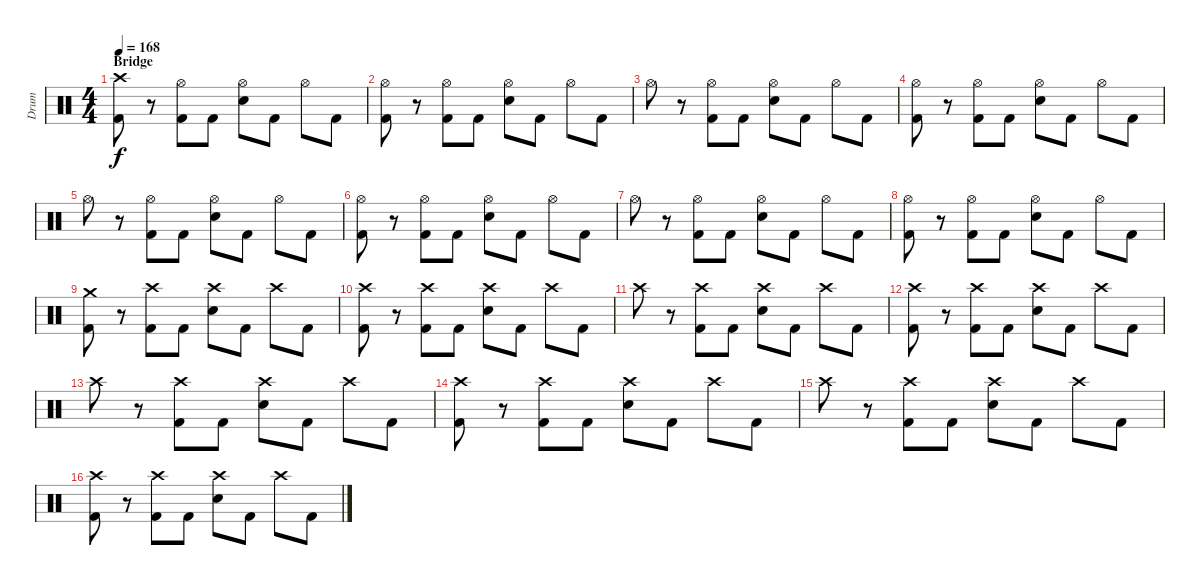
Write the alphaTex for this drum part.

\track ("Drum" "Drum") {instrument percussion}
\staff {score}
\articulation defaults
\ts (4 4)
\section ("" "Bridge")
\tempo 168
\clef neutral
\ks c
("Crash high (hit)" "Kick (hit) 2").8{dy f} r.8 ("Hi-Hat (open)" "Kick (hit) 2").8 "Kick (hit) 2".8 ("Hi-Hat (open)" "Electric Snare (hit)").8 "Kick (hit) 2".8 "Hi-Hat (open)".8 "Kick (hit) 2".8 |
("Hi-Hat (open)" "Kick (hit) 2").8 r.8 ("Hi-Hat (open)" "Kick (hit) 2").8 "Kick (hit) 2".8 ("Hi-Hat (open)" "Electric Snare (hit)").8 "Kick (hit) 2".8 "Hi-Hat (open)".8 "Kick (hit) 2".8 |
"Hi-Hat (open)".8 r.8 ("Hi-Hat (open)" "Kick (hit) 2").8 "Kick (hit) 2".8 ("Hi-Hat (open)" "Electric Snare (hit)").8 "Kick (hit) 2".8 "Hi-Hat (open)".8 "Kick (hit) 2".8 |
("Hi-Hat (open)" "Kick (hit) 2").8 r.8 ("Hi-Hat (open)" "Kick (hit) 2").8 "Kick (hit) 2".8 ("Hi-Hat (open)" "Electric Snare (hit)").8 "Kick (hit) 2".8 "Hi-Hat (open)".8 "Kick (hit) 2".8 |
"Hi-Hat (open)".8 r.8 ("Hi-Hat (open)" "Kick (hit) 2").8 "Kick (hit) 2".8 ("Hi-Hat (open)" "Electric Snare (hit)").8 "Kick (hit) 2".8 "Hi-Hat (open)".8 "Kick (hit) 2".8 |
("Hi-Hat (open)" "Kick (hit) 2").8 r.8 ("Hi-Hat (open)" "Kick (hit) 2").8 "Kick (hit) 2".8 ("Hi-Hat (open)" "Electric Snare (hit)").8 "Kick (hit) 2".8 "Hi-Hat (open)".8 "Kick (hit) 2".8 |
"Hi-Hat (open)".8 r.8 ("Hi-Hat (open)" "Kick (hit) 2").8 "Kick (hit) 2".8 ("Hi-Hat (open)" "Electric Snare (hit)").8 "Kick (hit) 2".8 "Hi-Hat (open)".8 "Kick (hit) 2".8 |
("Hi-Hat (open)" "Kick (hit) 2").8 r.8 ("Hi-Hat (open)" "Kick (hit) 2").8 "Kick (hit) 2".8 ("Hi-Hat (open)" "Electric Snare (hit)").8 "Kick (hit) 2".8 "Hi-Hat (open)".8 "Kick (hit) 2".8 |
("Crash medium (hit)" "Kick (hit) 2").8 r.8 ("Crash high (hit)" "Kick (hit) 2").8 "Kick (hit) 2".8 ("Crash high (hit)" "Electric Snare (hit)").8 "Kick (hit) 2".8 "Crash high (hit)".8 "Kick (hit) 2".8 |
("Crash high (hit)" "Kick (hit) 2").8 r.8 ("Crash high (hit)" "Kick (hit) 2").8 "Kick (hit) 2".8 ("Crash high (hit)" "Electric Snare (hit)").8 "Kick (hit) 2".8 "Crash high (hit)".8 "Kick (hit) 2".8 |
"Crash high (hit)".8 r.8 ("Crash high (hit)" "Kick (hit) 2").8 "Kick (hit) 2".8 ("Crash high (hit)" "Electric Snare (hit)").8 "Kick (hit) 2".8 "Crash high (hit)".8 "Kick (hit) 2".8 |
("Crash high (hit)" "Kick (hit) 2").8 r.8 ("Crash high (hit)" "Kick (hit) 2").8 "Kick (hit) 2".8 ("Crash high (hit)" "Electric Snare (hit)").8 "Kick (hit) 2".8 "Crash high (hit)".8 "Kick (hit) 2".8 |
"Crash high (hit)".8 r.8 ("Crash high (hit)" "Kick (hit) 2").8 "Kick (hit) 2".8 ("Crash high (hit)" "Electric Snare (hit)").8 "Kick (hit) 2".8 "Crash high (hit)".8 "Kick (hit) 2".8 |
("Crash high (hit)" "Kick (hit) 2").8 r.8 ("Crash high (hit)" "Kick (hit) 2").8 "Kick (hit) 2".8 ("Crash high (hit)" "Electric Snare (hit)").8 "Kick (hit) 2".8 "Crash high (hit)".8 "Kick (hit) 2".8 |
"Crash high (hit)".8 r.8 ("Crash high (hit)" "Kick (hit) 2").8 "Kick (hit) 2".8 ("Crash high (hit)" "Electric Snare (hit)").8 "Kick (hit) 2".8 "Crash high (hit)".8 "Kick (hit) 2".8 |
("Crash high (hit)" "Kick (hit) 2").8 r.8 ("Crash high (hit)" "Kick (hit) 2").8 "Kick (hit) 2".8 ("Crash high (hit)" "Electric Snare (hit)").8 "Kick (hit) 2".8 "Crash high (hit)".8 "Kick (hit) 2".8
